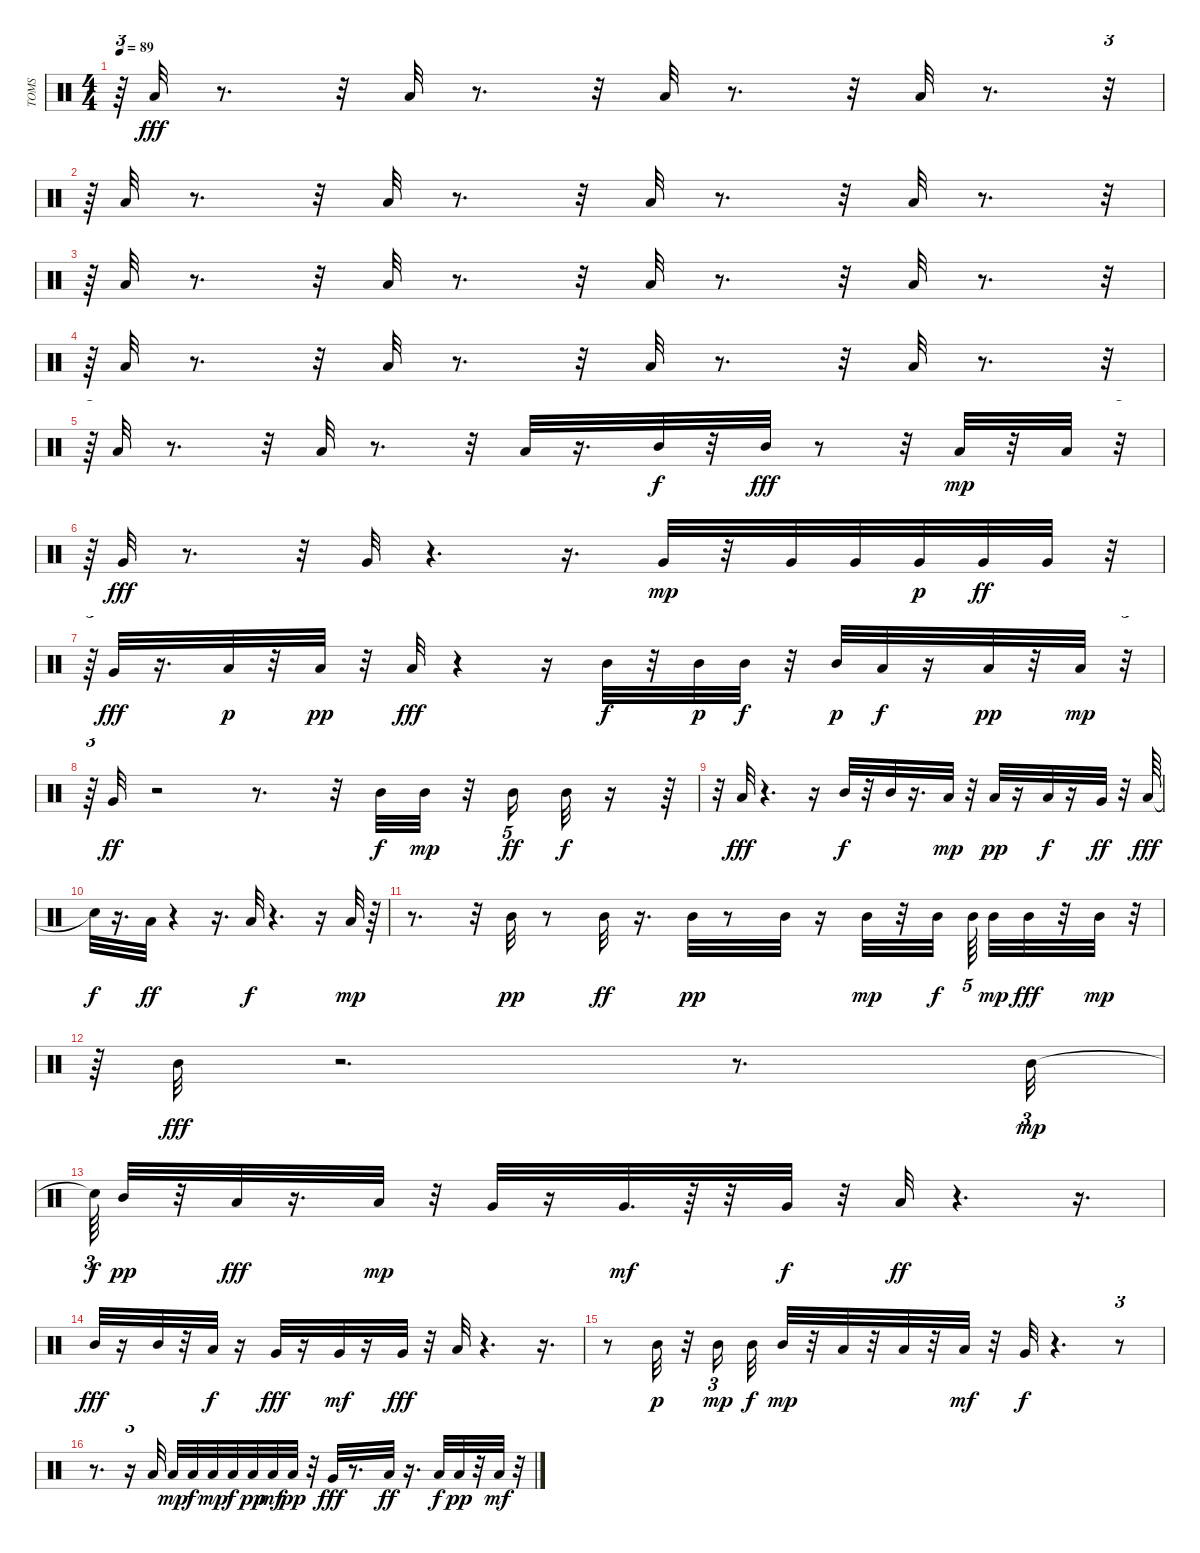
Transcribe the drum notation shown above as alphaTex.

\track ("TOMS" "TOMS") {instrument percussion}
\staff {score}
\articulation defaults
\ts (4 4)
\tempo 89
\clef neutral
\ks c
r.64{tu (3 2) dy fff} "Low Floor Tom (hit)".32 r.8{d} r.32 "Low Floor Tom (hit)".32 r.8{d} r.32 "Low Floor Tom (hit)".32 r.8{d} r.32 "Low Floor Tom (hit)".32 r.8{d} r.32{tu (3 2)} |
r.64{tu (3 2)} "Low Floor Tom (hit)".32 r.8{d} r.32 "Low Floor Tom (hit)".32 r.8{d} r.32 "Low Floor Tom (hit)".32 r.8{d} r.32 "Low Floor Tom (hit)".32 r.8{d} r.32{tu (3 2)} |
r.64{tu (3 2)} "Low Floor Tom (hit)".32 r.8{d} r.32 "Low Floor Tom (hit)".32 r.8{d} r.32 "Low Floor Tom (hit)".32 r.8{d} r.32 "Low Floor Tom (hit)".32 r.8{d} r.32{tu (3 2)} |
r.64{tu (3 2)} "Low Floor Tom (hit)".32 r.8{d} r.32 "Low Floor Tom (hit)".32 r.8{d} r.32 "Low Floor Tom (hit)".32 r.8{d} r.32 "Low Floor Tom (hit)".32 r.8{d} r.32{tu (3 2)} |
r.64{tu (3 2)} "Low Floor Tom (hit)".32 r.8{d} r.32 "Low Floor Tom (hit)".32 r.8{d} r.32 "Low Floor Tom (hit)".32 r.16{d} "Mid Tom (hit)".32{dy f} r.32 "Mid Tom (hit)".32{dy fff} r.8 r.32 "Low Tom (hit)".32{dy mp} r.32 "Low Tom (hit)".32 r.32{tu (3 2)} |
r.64{tu (3 2)} "Very Low Tom (hit)".32{dy fff} r.8{d} r.32 "Very Low Tom (hit)".32 r.4{d} r.16{d} "Very Low Tom (hit)".32{dy mp} r.32 "Very Low Tom (hit)".32 "Very Low Tom (hit)".32 "Very Low Tom (hit)".32{dy p} "Very Low Tom (hit)".32{dy ff} "Very Low Tom (hit)".32 r.32{tu (3 2)} |
r.64{tu (3 2)} "Very Low Tom (hit)".32{dy fff} r.16{d} "Low Tom (hit)".32{dy p} r.32 "Low Tom (hit)".32{dy pp} r.32 "Low Tom (hit)".32{dy fff} r.4 r.16 "Mid Tom (hit)".32{dy f} r.32 "Mid Tom (hit)".32{dy p} "Mid Tom (hit)".32{dy f} r.32 "Mid Tom (hit)".32{dy p} "Low Tom (hit)".32{dy f} r.16 "Low Tom (hit)".32{dy pp} r.32 "Low Tom (hit)".32{dy mp} r.32{tu (3 2)} |
r.64{tu (3 2)} "Very Low Tom (hit)".32{dy ff} r.2 r.8{d} r.32 "Mid Tom (hit)".32{dy f} "Mid Tom (hit)".32{dy mp} r.32 "Mid Tom (hit)".16{tu (5 4) dy ff} "Mid Tom (hit)".32{dy f} r.16 r.64 |
r.32 "Low Tom (hit)".32{dy fff} r.4{d} r.16 "Mid Tom (hit)".32{dy f} r.32 "Mid Tom (hit)".32 r.16{d} "Low Tom (hit)".32{dy mp} r.32 "Low Tom (hit)".32{dy pp} r.16 "Low Tom (hit)".32{dy f} r.16 "Very Low Tom (hit)".32{dy ff} r.32 "Low Floor Tom (hit)".64{dy fff} |
"Snare (hit)"{t}.32{dy f} r.16{d} "Low Floor Tom (hit)".32{dy ff} r.4 r.16{d} "Low Floor Tom (hit)".32{dy f} r.4{d} r.16 "Low Floor Tom (hit)".32{dy mp} r.64 |
r.8{d} r.32 "Mid Tom (hit)".32{dy pp} r.8 "Mid Tom (hit)".32{dy ff} r.16{d} "Mid Tom (hit)".32{dy pp} r.8 "Mid Tom (hit)".32 r.16 "Mid Tom (hit)".32{dy mp} r.32 "Mid Tom (hit)".32{dy f beam splitsecondary} "Mid Tom (hit)".64{tu (5 4) beam splitsecondary} "Mid Tom (hit)".32{dy mp} "Mid Tom (hit)".32{dy fff} r.32 "Mid Tom (hit)".32{dy mp} r.32{tu (3 2)} |
r.64{tu (3 2)} "Mid Tom (hit)".32{dy fff} r.2{d} r.8{d} "Mid Tom (hit)".32{tu (3 2) dy mp} |
"Snare (hit)"{t}.64{tu (3 2) dy f} "Mid Tom (hit)".32{dy pp} r.32 "Low Tom (hit)".32{dy fff} r.16{d} "Low Tom (hit)".32{dy mp} r.32 "Very Low Tom (hit)".32 r.16 "Very Low Tom (hit)".32{d dy mf} r.64 r.32 "Very Low Tom (hit)".32{dy f} r.32 "Low Floor Tom (hit)".32{dy ff} r.4{d} r.16{d} |
"Mid Tom (hit)".32{dy fff} r.16 "Mid Tom (hit)".32 r.32 "Low Tom (hit)".32{dy f} r.16 "Very Low Tom (hit)".32{dy fff} r.16 "Very Low Tom (hit)".32{dy mf} r.16 "Very Low Tom (hit)".32{dy fff} r.32 "Low Floor Tom (hit)".32 r.4{d} r.16{d} |
r.8 "Mid Tom (hit)".32{dy p} r.32 "Mid Tom (hit)".16{tu (3 2) dy mp} "Mid Tom (hit)".32{dy f} "Mid Tom (hit)".32{dy mp} r.32 "Low Tom (hit)".32 r.32 "Low Tom (hit)".32 r.32 "Low Tom (hit)".32{dy mf} r.32 "Very Low Tom (hit)".32{dy f} r.4{d} r.8{tu (3 2)} |
r.8{d} r.16{tu (3 2)} "Low Tom (hit)".32 "Low Tom (hit)".32{dy mp} "Low Tom (hit)".32{dy f} "Low Tom (hit)".32{dy mp} "Low Tom (hit)".32{dy f} "Low Tom (hit)".32{dy pp} "Low Tom (hit)".32{dy mf} "Low Tom (hit)".32{dy pp} r.32 "Very Low Tom (hit)".32{dy fff} r.8{d} "Low Tom (hit)".32{dy ff} r.16{d} "Low Tom (hit)".32{dy f} "Low Tom (hit)".32{dy pp} r.32 "Low Tom (hit)".32{dy mf} r.32{tu (3 2)}
